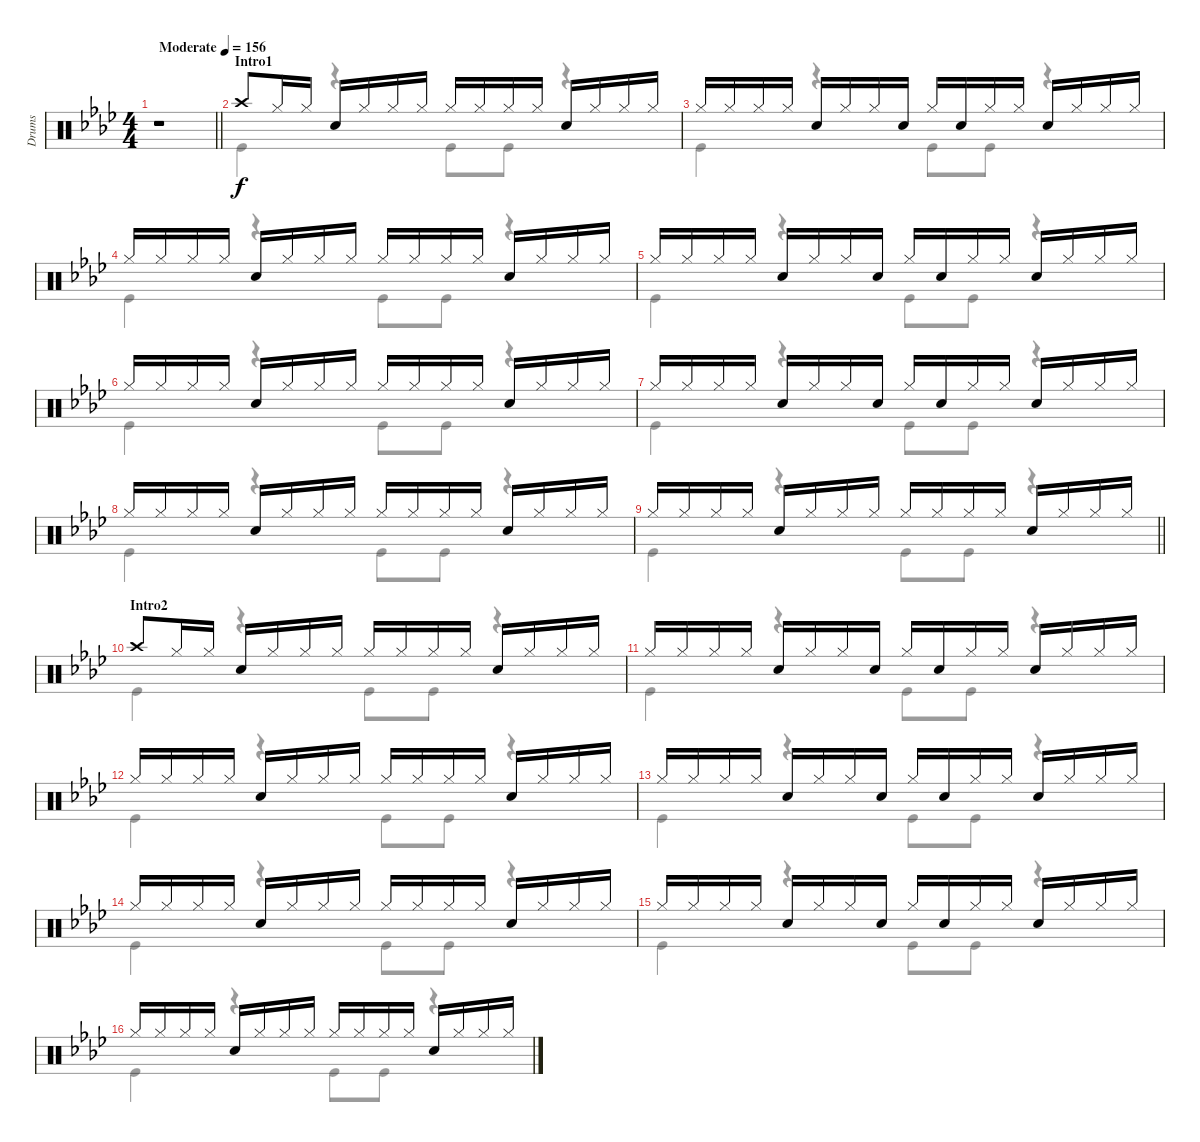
\track ("Drums" "Drums") {instrument percussion}
\staff {score}
\articulation defaults
\voice
\ts (4 4)
\tempo (156 "Moderate")
\clef neutral
\barLineRight lightlight
\ks ab
r.1{dy f} |
\section ("" "Intro1")
"Crash high (hit)".8 "Hi-Hat (closed)".16 "Hi-Hat (closed)".16 "Snare (hit) 2".16 "Hi-Hat (closed)".16 "Hi-Hat (closed)".16 "Hi-Hat (closed)".16 "Hi-Hat (closed)".16 "Hi-Hat (closed)".16 "Hi-Hat (closed)".16 "Hi-Hat (closed)".16 "Snare (hit) 2".16 "Hi-Hat (closed)".16 "Hi-Hat (closed)".16 "Hi-Hat (closed)".16 |
"Hi-Hat (closed)".16 "Hi-Hat (closed)".16 "Hi-Hat (closed)".16 "Hi-Hat (closed)".16 "Snare (hit) 2".16 "Hi-Hat (closed)".16 "Hi-Hat (closed)".16 "Snare (hit) 2".16 "Hi-Hat (closed)".16 "Snare (hit) 2".16 "Hi-Hat (closed)".16 "Hi-Hat (closed)".16 "Snare (hit) 2".16 "Hi-Hat (closed)".16 "Hi-Hat (closed)".16 "Hi-Hat (closed)".16 |
"Hi-Hat (closed)".16 "Hi-Hat (closed)".16 "Hi-Hat (closed)".16 "Hi-Hat (closed)".16 "Snare (hit) 2".16 "Hi-Hat (closed)".16 "Hi-Hat (closed)".16 "Hi-Hat (closed)".16 "Hi-Hat (closed)".16 "Hi-Hat (closed)".16 "Hi-Hat (closed)".16 "Hi-Hat (closed)".16 "Snare (hit) 2".16 "Hi-Hat (closed)".16 "Hi-Hat (closed)".16 "Hi-Hat (closed)".16 |
"Hi-Hat (closed)".16 "Hi-Hat (closed)".16 "Hi-Hat (closed)".16 "Hi-Hat (closed)".16 "Snare (hit) 2".16 "Hi-Hat (closed)".16 "Hi-Hat (closed)".16 "Snare (hit) 2".16 "Hi-Hat (closed)".16 "Snare (hit) 2".16 "Hi-Hat (closed)".16 "Hi-Hat (closed)".16 "Snare (hit) 2".16 "Hi-Hat (closed)".16 "Hi-Hat (closed)".16 "Hi-Hat (closed)".16 |
"Hi-Hat (closed)".16 "Hi-Hat (closed)".16 "Hi-Hat (closed)".16 "Hi-Hat (closed)".16 "Snare (hit) 2".16 "Hi-Hat (closed)".16 "Hi-Hat (closed)".16 "Hi-Hat (closed)".16 "Hi-Hat (closed)".16 "Hi-Hat (closed)".16 "Hi-Hat (closed)".16 "Hi-Hat (closed)".16 "Snare (hit) 2".16 "Hi-Hat (closed)".16 "Hi-Hat (closed)".16 "Hi-Hat (closed)".16 |
"Hi-Hat (closed)".16 "Hi-Hat (closed)".16 "Hi-Hat (closed)".16 "Hi-Hat (closed)".16 "Snare (hit) 2".16 "Hi-Hat (closed)".16 "Hi-Hat (closed)".16 "Snare (hit) 2".16 "Hi-Hat (closed)".16 "Snare (hit) 2".16 "Hi-Hat (closed)".16 "Hi-Hat (closed)".16 "Snare (hit) 2".16 "Hi-Hat (closed)".16 "Hi-Hat (closed)".16 "Hi-Hat (closed)".16 |
"Hi-Hat (closed)".16 "Hi-Hat (closed)".16 "Hi-Hat (closed)".16 "Hi-Hat (closed)".16 "Snare (hit) 2".16 "Hi-Hat (closed)".16 "Hi-Hat (closed)".16 "Hi-Hat (closed)".16 "Hi-Hat (closed)".16 "Hi-Hat (closed)".16 "Hi-Hat (closed)".16 "Hi-Hat (closed)".16 "Snare (hit) 2".16 "Hi-Hat (closed)".16 "Hi-Hat (closed)".16 "Hi-Hat (closed)".16 |
\barLineRight lightlight "Hi-Hat (closed)".16 "Hi-Hat (closed)".16 "Hi-Hat (closed)".16 "Hi-Hat (closed)".16 "Snare (hit) 2".16 "Hi-Hat (closed)".16 "Hi-Hat (closed)".16 "Hi-Hat (closed)".16 "Hi-Hat (closed)".16 "Hi-Hat (closed)".16 "Hi-Hat (closed)".16 "Hi-Hat (closed)".16 "Snare (hit) 2".16 "Hi-Hat (closed)".16 "Hi-Hat (closed)".16 "Hi-Hat (closed)".16
|
\section ("" "Intro2")
"Crash high (hit)".8 "Hi-Hat (closed)".16 "Hi-Hat (closed)".16 "Snare (hit) 2".16 "Hi-Hat (closed)".16 "Hi-Hat (closed)".16 "Hi-Hat (closed)".16 "Hi-Hat (closed)".16 "Hi-Hat (closed)".16 "Hi-Hat (closed)".16 "Hi-Hat (closed)".16 "Snare (hit) 2".16 "Hi-Hat (closed)".16 "Hi-Hat (closed)".16 "Hi-Hat (closed)".16 |
"Hi-Hat (closed)".16 "Hi-Hat (closed)".16 "Hi-Hat (closed)".16 "Hi-Hat (closed)".16 "Snare (hit) 2".16 "Hi-Hat (closed)".16 "Hi-Hat (closed)".16 "Snare (hit) 2".16 "Hi-Hat (closed)".16 "Snare (hit) 2".16 "Hi-Hat (closed)".16 "Hi-Hat (closed)".16 "Snare (hit) 2".16 "Hi-Hat (closed)".16 "Hi-Hat (closed)".16 "Hi-Hat (closed)".16 |
"Hi-Hat (closed)".16 "Hi-Hat (closed)".16 "Hi-Hat (closed)".16 "Hi-Hat (closed)".16 "Snare (hit) 2".16 "Hi-Hat (closed)".16 "Hi-Hat (closed)".16 "Hi-Hat (closed)".16 "Hi-Hat (closed)".16 "Hi-Hat (closed)".16 "Hi-Hat (closed)".16 "Hi-Hat (closed)".16 "Snare (hit) 2".16 "Hi-Hat (closed)".16 "Hi-Hat (closed)".16 "Hi-Hat (closed)".16 |
"Hi-Hat (closed)".16 "Hi-Hat (closed)".16 "Hi-Hat (closed)".16 "Hi-Hat (closed)".16 "Snare (hit) 2".16 "Hi-Hat (closed)".16 "Hi-Hat (closed)".16 "Snare (hit) 2".16 "Hi-Hat (closed)".16 "Snare (hit) 2".16 "Hi-Hat (closed)".16 "Hi-Hat (closed)".16 "Snare (hit) 2".16 "Hi-Hat (closed)".16 "Hi-Hat (closed)".16 "Hi-Hat (closed)".16 |
"Hi-Hat (closed)".16 "Hi-Hat (closed)".16 "Hi-Hat (closed)".16 "Hi-Hat (closed)".16 "Snare (hit) 2".16 "Hi-Hat (closed)".16 "Hi-Hat (closed)".16 "Hi-Hat (closed)".16 "Hi-Hat (closed)".16 "Hi-Hat (closed)".16 "Hi-Hat (closed)".16 "Hi-Hat (closed)".16 "Snare (hit) 2".16 "Hi-Hat (closed)".16 "Hi-Hat (closed)".16 "Hi-Hat (closed)".16 |
"Hi-Hat (closed)".16 "Hi-Hat (closed)".16 "Hi-Hat (closed)".16 "Hi-Hat (closed)".16 "Snare (hit) 2".16 "Hi-Hat (closed)".16 "Hi-Hat (closed)".16 "Snare (hit) 2".16 "Hi-Hat (closed)".16 "Snare (hit) 2".16 "Hi-Hat (closed)".16 "Hi-Hat (closed)".16 "Snare (hit) 2".16 "Hi-Hat (closed)".16 "Hi-Hat (closed)".16 "Hi-Hat (closed)".16 |
"Hi-Hat (closed)".16 "Hi-Hat (closed)".16 "Hi-Hat (closed)".16 "Hi-Hat (closed)".16 "Snare (hit) 2".16 "Hi-Hat (closed)".16 "Hi-Hat (closed)".16 "Hi-Hat (closed)".16 "Hi-Hat (closed)".16 "Hi-Hat (closed)".16 "Hi-Hat (closed)".16 "Hi-Hat (closed)".16 "Snare (hit) 2".16 "Hi-Hat (closed)".16 "Hi-Hat (closed)".16 "Hi-Hat (closed)".16
\voice
\clef neutral
\ottava regular
\simile none
\barLineRight lightlight
\ks ab
r.1{dy f} |
"Kick (hit)".4 r.4 "Kick (hit)".8 "Kick (hit)".8 r.4 |
"Kick (hit)".4 r.4 "Kick (hit)".8 "Kick (hit)".8 r.4 |
"Kick (hit)".4 r.4 "Kick (hit)".8 "Kick (hit)".8 r.4 |
"Kick (hit)".4 r.4 "Kick (hit)".8 "Kick (hit)".8 r.4 |
"Kick (hit)".4 r.4 "Kick (hit)".8 "Kick (hit)".8 r.4 |
"Kick (hit)".4 r.4 "Kick (hit)".8 "Kick (hit)".8 r.4 |
"Kick (hit)".4 r.4 "Kick (hit)".8 "Kick (hit)".8 r.4 |
\barLineRight lightlight "Kick (hit)".4
r.4 "Kick (hit)".8 "Kick (hit)".8 r.4 |
"Kick (hit)".4 r.4 "Kick (hit)".8 "Kick (hit)".8 r.4 |
"Kick (hit)".4 r.4 "Kick (hit)".8 "Kick (hit)".8 r.4 |
"Kick (hit)".4 r.4 "Kick (hit)".8 "Kick (hit)".8 r.4 |
"Kick (hit)".4 r.4 "Kick (hit)".8 "Kick (hit)".8 r.4 |
"Kick (hit)".4 r.4 "Kick (hit)".8 "Kick (hit)".8 r.4 |
"Kick (hit)".4 r.4 "Kick (hit)".8 "Kick (hit)".8 r.4 |
"Kick (hit)".4 r.4 "Kick (hit)".8 "Kick (hit)".8 r.4
